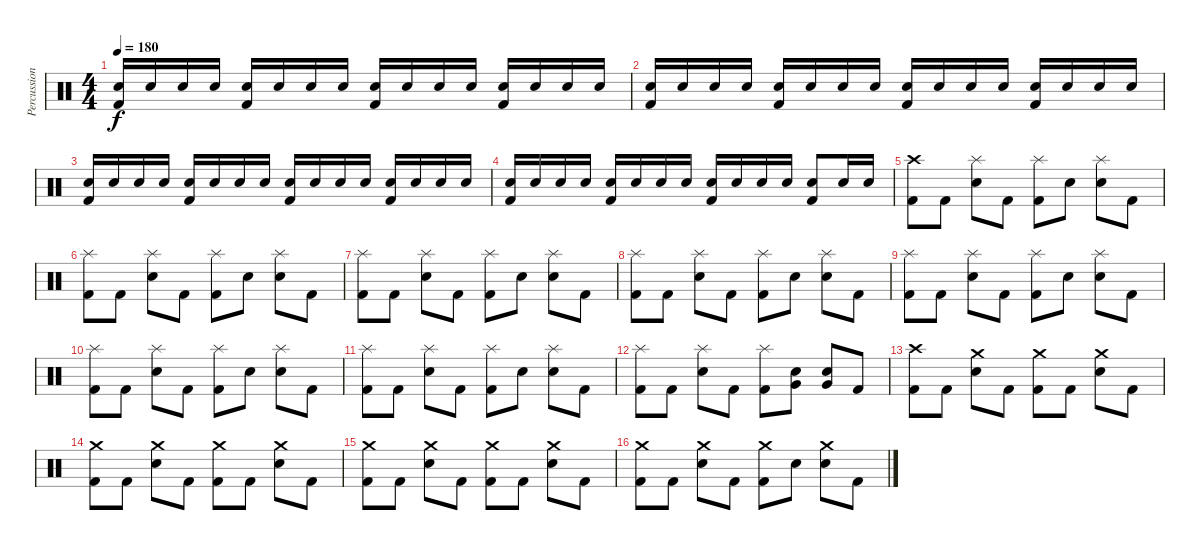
\track ("Percussion" "Percussion") {instrument percussion}
\staff {score}
\articulation defaults
\ts (4 4)
\tempo 180
\clef neutral
\ks c
("Electric Snare (hit)" "Kick (hit) 2").16{dy f volume 4} "Electric Snare (hit)".16 "Electric Snare (hit)".16 "Electric Snare (hit)".16 ("Electric Snare (hit)" "Kick (hit) 2").16{volume 13} "Electric Snare (hit)".16 "Electric Snare (hit)".16 "Electric Snare (hit)".16 ("Electric Snare (hit)" "Kick (hit) 2").16 "Electric Snare (hit)".16 "Electric Snare (hit)".16 "Electric Snare (hit)".16 ("Electric Snare (hit)" "Kick (hit) 2").16 "Electric Snare (hit)".16 "Electric Snare (hit)".16 "Electric Snare (hit)".16 |
("Electric Snare (hit)" "Kick (hit) 2").16 "Electric Snare (hit)".16 "Electric Snare (hit)".16 "Electric Snare (hit)".16 ("Electric Snare (hit)" "Kick (hit) 2").16 "Electric Snare (hit)".16 "Electric Snare (hit)".16 "Electric Snare (hit)".16 ("Electric Snare (hit)" "Kick (hit) 2").16 "Electric Snare (hit)".16 "Electric Snare (hit)".16 "Electric Snare (hit)".16 ("Electric Snare (hit)" "Kick (hit) 2").16 "Electric Snare (hit)".16 "Electric Snare (hit)".16 "Electric Snare (hit)".16 |
("Electric Snare (hit)" "Kick (hit) 2").16 "Electric Snare (hit)".16 "Electric Snare (hit)".16 "Electric Snare (hit)".16 ("Electric Snare (hit)" "Kick (hit) 2").16 "Electric Snare (hit)".16 "Electric Snare (hit)".16 "Electric Snare (hit)".16 ("Electric Snare (hit)" "Kick (hit) 2").16 "Electric Snare (hit)".16 "Electric Snare (hit)".16 "Electric Snare (hit)".16 ("Electric Snare (hit)" "Kick (hit) 2").16 "Electric Snare (hit)".16 "Electric Snare (hit)".16 "Electric Snare (hit)".16 |
("Electric Snare (hit)" "Kick (hit) 2").16 "Electric Snare (hit)".16 "Electric Snare (hit)".16 "Electric Snare (hit)".16 ("Electric Snare (hit)" "Kick (hit) 2").16 "Electric Snare (hit)".16 "Electric Snare (hit)".16 "Electric Snare (hit)".16 ("Electric Snare (hit)" "Kick (hit) 2").16 "Electric Snare (hit)".16 "Electric Snare (hit)".16 "Electric Snare (hit)".16 ("Electric Snare (hit)" "Kick (hit) 2").8 "Electric Snare (hit)".16 "Electric Snare (hit)".16 |
("Crash high (hit)" "Kick (hit) 2").8 "Kick (hit) 2".8 ("Splash (hit)" "Electric Snare (hit)").8 "Kick (hit) 2".8 ("Splash (hit)" "Kick (hit) 2").8 "Electric Snare (hit)".8 ("Splash (hit)" "Electric Snare (hit)").8 "Kick (hit) 2".8 |
("Splash (hit)" "Kick (hit) 2").8 "Kick (hit) 2".8 ("Splash (hit)" "Electric Snare (hit)").8 "Kick (hit) 2".8 ("Splash (hit)" "Kick (hit) 2").8 "Electric Snare (hit)".8 ("Splash (hit)" "Electric Snare (hit)").8 "Kick (hit) 2".8 |
("Splash (hit)" "Kick (hit) 2").8 "Kick (hit) 2".8 ("Splash (hit)" "Electric Snare (hit)").8 "Kick (hit) 2".8 ("Splash (hit)" "Kick (hit) 2").8 "Electric Snare (hit)".8 ("Splash (hit)" "Electric Snare (hit)").8 "Kick (hit) 2".8 |
("Splash (hit)" "Kick (hit) 2").8 "Kick (hit) 2".8 ("Splash (hit)" "Electric Snare (hit)").8 "Kick (hit) 2".8 ("Splash (hit)" "Kick (hit) 2").8 "Electric Snare (hit)".8 ("Splash (hit)" "Electric Snare (hit)").8 "Kick (hit) 2".8 |
("Splash (hit)" "Kick (hit) 2").8 "Kick (hit) 2".8 ("Splash (hit)" "Electric Snare (hit)").8 "Kick (hit) 2".8 ("Splash (hit)" "Kick (hit) 2").8 "Electric Snare (hit)".8 ("Splash (hit)" "Electric Snare (hit)").8 "Kick (hit) 2".8 |
("Splash (hit)" "Kick (hit) 2").8 "Kick (hit) 2".8 ("Splash (hit)" "Electric Snare (hit)").8 "Kick (hit) 2".8 ("Splash (hit)" "Kick (hit) 2").8 "Electric Snare (hit)".8 ("Splash (hit)" "Electric Snare (hit)").8 "Kick (hit) 2".8 |
("Splash (hit)" "Kick (hit) 2").8 "Kick (hit) 2".8 ("Splash (hit)" "Electric Snare (hit)").8 "Kick (hit) 2".8 ("Splash (hit)" "Kick (hit) 2").8 "Electric Snare (hit)".8 ("Splash (hit)" "Electric Snare (hit)").8 "Kick (hit) 2".8 |
("Splash (hit)" "Kick (hit) 2").8 "Kick (hit) 2".8 ("Splash (hit)" "Electric Snare (hit)").8 "Kick (hit) 2".8 ("Splash (hit)" "Kick (hit) 2").8 ("Electric Snare (hit)" "Very Low Tom (hit)").8 ("Electric Snare (hit)" "Very Low Tom (hit)").8 "Kick (hit) 2".8 |
("Crash high (hit)" "Kick (hit) 2").8 "Kick (hit) 2".8 ("Crash medium (hit)" "Electric Snare (hit)").8 "Kick (hit) 2".8 ("Crash medium (hit)" "Kick (hit) 2").8 "Kick (hit) 2".8 ("Crash medium (hit)" "Electric Snare (hit)").8 "Kick (hit) 2".8 |
("Crash medium (hit)" "Kick (hit) 2").8 "Kick (hit) 2".8 ("Crash medium (hit)" "Electric Snare (hit)").8 "Kick (hit) 2".8 ("Crash medium (hit)" "Kick (hit) 2").8 "Kick (hit) 2".8 ("Crash medium (hit)" "Electric Snare (hit)").8 "Kick (hit) 2".8 |
("Crash medium (hit)" "Kick (hit) 2").8 "Kick (hit) 2".8 ("Crash medium (hit)" "Electric Snare (hit)").8 "Kick (hit) 2".8 ("Crash medium (hit)" "Kick (hit) 2").8 "Kick (hit) 2".8 ("Crash medium (hit)" "Electric Snare (hit)").8 "Kick (hit) 2".8 |
("Crash medium (hit)" "Kick (hit) 2").8 "Kick (hit) 2".8 ("Crash medium (hit)" "Electric Snare (hit)").8 "Kick (hit) 2".8 ("Crash medium (hit)" "Kick (hit) 2").8 "Electric Snare (hit)".8 ("Crash medium (hit)" "Electric Snare (hit)").8 "Kick (hit) 2".8
